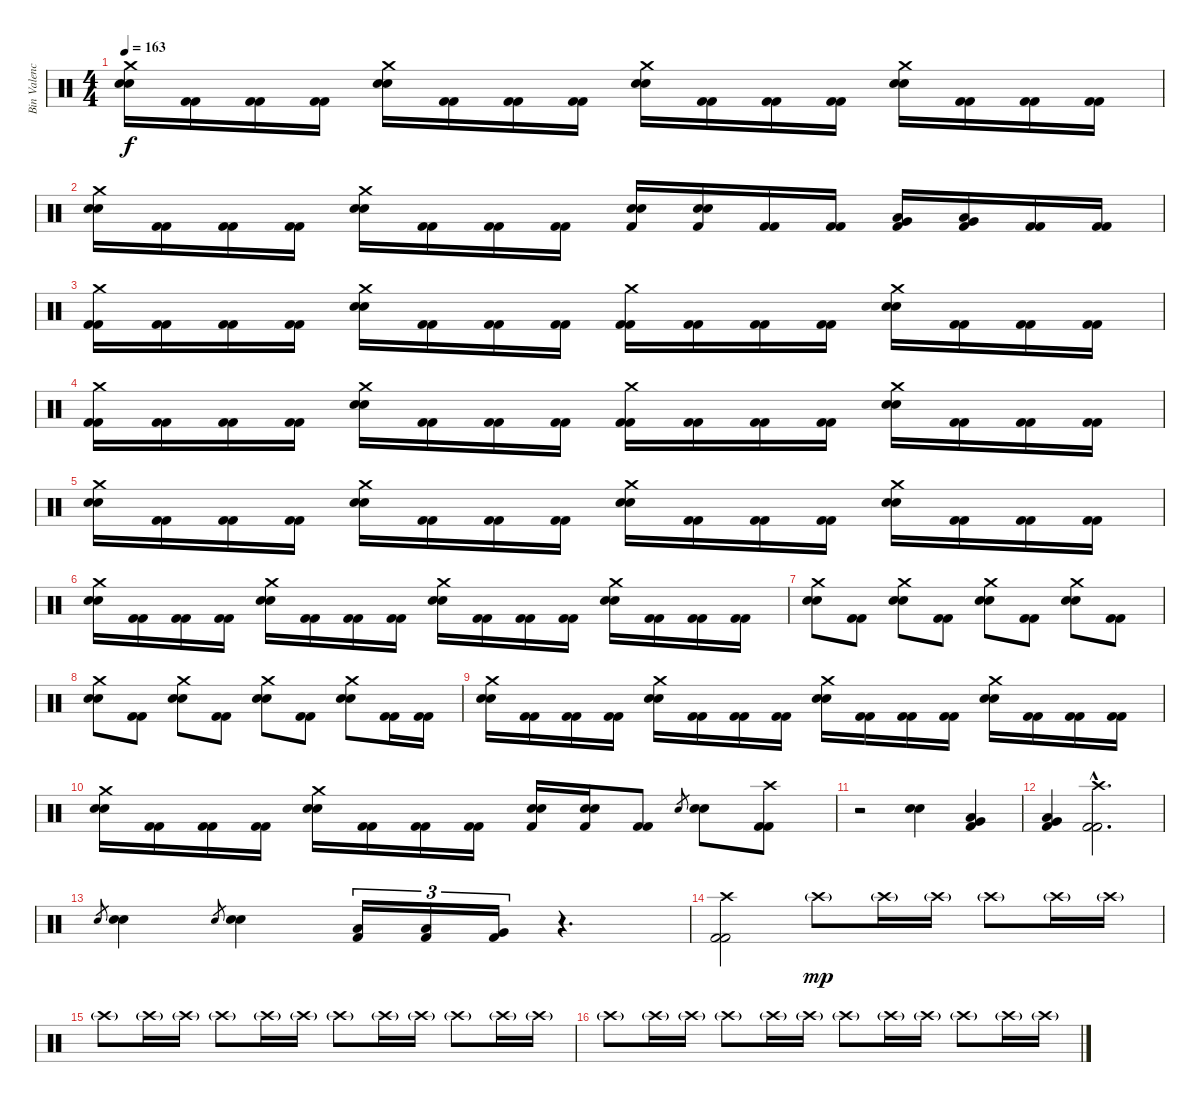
\track ("Bin Valencia" "Bin Valenc") {instrument percussion}
\staff {score}
\articulation defaults
\ts (4 4)
\tempo 163
\clef neutral
\ks c
("Crash medium (hit)" "Snare (hit) 2" "Snare (hit) 2").16{dy f} ("Kick (hit) 2" "Kick (hit) 2").16 ("Kick (hit) 2" "Kick (hit) 2").16 ("Kick (hit) 2" "Kick (hit) 2").16 ("Crash medium (hit)" "Snare (hit) 2" "Snare (hit) 2").16 ("Kick (hit) 2" "Kick (hit) 2").16 ("Kick (hit) 2" "Kick (hit) 2").16 ("Kick (hit) 2" "Kick (hit) 2").16 ("Crash medium (hit)" "Snare (hit) 2" "Snare (hit) 2").16 ("Kick (hit) 2" "Kick (hit) 2").16 ("Kick (hit) 2" "Kick (hit) 2").16 ("Kick (hit) 2" "Kick (hit) 2").16 ("Crash medium (hit)" "Snare (hit) 2" "Snare (hit) 2").16 ("Kick (hit) 2" "Kick (hit) 2").16 ("Kick (hit) 2" "Kick (hit) 2").16 ("Kick (hit) 2" "Kick (hit) 2").16 |
("Crash medium (hit)" "Snare (hit) 2" "Snare (hit) 2").16 ("Kick (hit) 2" "Kick (hit) 2").16 ("Kick (hit) 2" "Kick (hit) 2").16 ("Kick (hit) 2" "Kick (hit) 2").16 ("Crash medium (hit)" "Snare (hit) 2" "Snare (hit) 2").16 ("Kick (hit) 2" "Kick (hit) 2").16 ("Kick (hit) 2" "Kick (hit) 2").16 ("Kick (hit) 2" "Kick (hit) 2").16 ("Snare (hit) 2" "Snare (hit) 2" "Kick (hit) 2").16 ("Snare (hit) 2" "Snare (hit) 2" "Kick (hit) 2").16 ("Kick (hit) 2" "Kick (hit) 2").16 ("Kick (hit) 2" "Kick (hit) 2").16 ("Very Low Tom (hit)" "Low Tom (hit)" "Kick (hit) 2").16 ("Very Low Tom (hit)" "Low Tom (hit)" "Kick (hit) 2").16 ("Kick (hit) 2" "Kick (hit) 2").16 ("Kick (hit) 2" "Kick (hit) 2").16 |
("Crash medium (hit)" "Kick (hit) 2" "Kick (hit) 2").16 ("Kick (hit) 2" "Kick (hit) 2").16 ("Kick (hit) 2" "Kick (hit) 2").16 ("Kick (hit) 2" "Kick (hit) 2").16 ("Crash medium (hit)" "Snare (hit) 2" "Snare (hit) 2").16 ("Kick (hit) 2" "Kick (hit) 2").16 ("Kick (hit) 2" "Kick (hit) 2").16 ("Kick (hit) 2" "Kick (hit) 2").16 ("Crash medium (hit)" "Kick (hit) 2" "Kick (hit) 2").16 ("Kick (hit) 2" "Kick (hit) 2").16 ("Kick (hit) 2" "Kick (hit) 2").16 ("Kick (hit) 2" "Kick (hit) 2").16 ("Crash medium (hit)" "Snare (hit) 2" "Snare (hit) 2").16 ("Kick (hit) 2" "Kick (hit) 2").16 ("Kick (hit) 2" "Kick (hit) 2").16 ("Kick (hit) 2" "Kick (hit) 2").16 |
("Crash medium (hit)" "Kick (hit) 2" "Kick (hit) 2").16 ("Kick (hit) 2" "Kick (hit) 2").16 ("Kick (hit) 2" "Kick (hit) 2").16 ("Kick (hit) 2" "Kick (hit) 2").16 ("Crash medium (hit)" "Snare (hit) 2" "Snare (hit) 2").16 ("Kick (hit) 2" "Kick (hit) 2").16 ("Kick (hit) 2" "Kick (hit) 2").16 ("Kick (hit) 2" "Kick (hit) 2").16 ("Crash medium (hit)" "Kick (hit) 2" "Kick (hit) 2").16 ("Kick (hit) 2" "Kick (hit) 2").16 ("Kick (hit) 2" "Kick (hit) 2").16 ("Kick (hit) 2" "Kick (hit) 2").16 ("Crash medium (hit)" "Snare (hit) 2" "Snare (hit) 2").16 ("Kick (hit) 2" "Kick (hit) 2").16 ("Kick (hit) 2" "Kick (hit) 2").16 ("Kick (hit) 2" "Kick (hit) 2").16 |
("Crash medium (hit)" "Snare (hit) 2" "Snare (hit) 2").16 ("Kick (hit) 2" "Kick (hit) 2").16 ("Kick (hit) 2" "Kick (hit) 2").16 ("Kick (hit) 2" "Kick (hit) 2").16 ("Crash medium (hit)" "Snare (hit) 2" "Snare (hit) 2").16 ("Kick (hit) 2" "Kick (hit) 2").16 ("Kick (hit) 2" "Kick (hit) 2").16 ("Kick (hit) 2" "Kick (hit) 2").16 ("Crash medium (hit)" "Snare (hit) 2" "Snare (hit) 2").16 ("Kick (hit) 2" "Kick (hit) 2").16 ("Kick (hit) 2" "Kick (hit) 2").16 ("Kick (hit) 2" "Kick (hit) 2").16 ("Crash medium (hit)" "Snare (hit) 2" "Snare (hit) 2").16 ("Kick (hit) 2" "Kick (hit) 2").16 ("Kick (hit) 2" "Kick (hit) 2").16 ("Kick (hit) 2" "Kick (hit) 2").16 |
("Crash medium (hit)" "Snare (hit) 2" "Snare (hit) 2").16 ("Kick (hit) 2" "Kick (hit) 2").16 ("Kick (hit) 2" "Kick (hit) 2").16 ("Kick (hit) 2" "Kick (hit) 2").16 ("Crash medium (hit)" "Snare (hit) 2" "Snare (hit) 2").16 ("Kick (hit) 2" "Kick (hit) 2").16 ("Kick (hit) 2" "Kick (hit) 2").16 ("Kick (hit) 2" "Kick (hit) 2").16 ("Crash medium (hit)" "Snare (hit) 2" "Snare (hit) 2").16 ("Kick (hit) 2" "Kick (hit) 2").16 ("Kick (hit) 2" "Kick (hit) 2").16 ("Kick (hit) 2" "Kick (hit) 2").16 ("Crash medium (hit)" "Snare (hit) 2" "Snare (hit) 2").16 ("Kick (hit) 2" "Kick (hit) 2").16 ("Kick (hit) 2" "Kick (hit) 2").16 ("Kick (hit) 2" "Kick (hit) 2").16 |
("Crash medium (hit)" "Snare (hit) 2" "Snare (hit) 2").8 ("Kick (hit) 2" "Kick (hit) 2").8 ("Crash medium (hit)" "Snare (hit) 2" "Snare (hit) 2").8 ("Kick (hit) 2" "Kick (hit) 2").8 ("Crash medium (hit)" "Snare (hit) 2" "Snare (hit) 2").8 ("Kick (hit) 2" "Kick (hit) 2").8 ("Crash medium (hit)" "Snare (hit) 2" "Snare (hit) 2").8 ("Kick (hit) 2" "Kick (hit) 2").8 |
("Crash medium (hit)" "Snare (hit) 2" "Snare (hit) 2").8 ("Kick (hit) 2" "Kick (hit) 2").8 ("Crash medium (hit)" "Snare (hit) 2" "Snare (hit) 2").8 ("Kick (hit) 2" "Kick (hit) 2").8 ("Crash medium (hit)" "Snare (hit) 2" "Snare (hit) 2").8 ("Kick (hit) 2" "Kick (hit) 2").8 ("Crash medium (hit)" "Snare (hit) 2" "Snare (hit) 2").8 ("Kick (hit) 2" "Kick (hit) 2").16 ("Kick (hit) 2" "Kick (hit) 2").16 |
("Crash medium (hit)" "Snare (hit) 2" "Snare (hit) 2").16 ("Kick (hit) 2" "Kick (hit) 2").16 ("Kick (hit) 2" "Kick (hit) 2").16 ("Kick (hit) 2" "Kick (hit) 2").16 ("Crash medium (hit)" "Snare (hit) 2" "Snare (hit) 2").16 ("Kick (hit) 2" "Kick (hit) 2").16 ("Kick (hit) 2" "Kick (hit) 2").16 ("Kick (hit) 2" "Kick (hit) 2").16 ("Crash medium (hit)" "Snare (hit) 2" "Snare (hit) 2").16 ("Kick (hit) 2" "Kick (hit) 2").16 ("Kick (hit) 2" "Kick (hit) 2").16 ("Kick (hit) 2" "Kick (hit) 2").16 ("Crash medium (hit)" "Snare (hit) 2" "Snare (hit) 2").16 ("Kick (hit) 2" "Kick (hit) 2").16 ("Kick (hit) 2" "Kick (hit) 2").16 ("Kick (hit) 2" "Kick (hit) 2").16 |
("Crash medium (hit)" "Snare (hit) 2" "Snare (hit) 2").16 ("Kick (hit) 2" "Kick (hit) 2").16 ("Kick (hit) 2" "Kick (hit) 2").16 ("Kick (hit) 2" "Kick (hit) 2").16 ("Crash medium (hit)" "Snare (hit) 2" "Snare (hit) 2").16 ("Kick (hit) 2" "Kick (hit) 2").16 ("Kick (hit) 2" "Kick (hit) 2").16 ("Kick (hit) 2" "Kick (hit) 2").16 ("Snare (hit) 2" "Snare (hit) 2" "Kick (hit) 2").16 ("Snare (hit) 2" "Snare (hit) 2" "Kick (hit) 2").16 ("Kick (hit) 2" "Kick (hit) 2").8 "Electric Snare (hit)".8{gr} ("Electric Snare (hit)" "Electric Snare (hit)").8 ("Crash high (hit)" "Kick (hit) 2" "Kick (hit) 2").8 |
r.2 ("Electric Snare (hit)" "Electric Snare (hit)").4 ("Very Low Tom (hit)" "Low Tom (hit)" "Kick (hit) 2").4 |
("Low Tom (hit)" "Very Low Tom (hit)" "Kick (hit) 2").4 ("Crash high (hit)"{hac} "Kick (hit) 2"{hac} "Kick (hit) 2"{hac}).2{d} |
"Electric Snare (hit)".8{gr} ("Electric Snare (hit)" "Electric Snare (hit)").4 "Electric Snare (hit)".8{gr} ("Snare (hit) 2" "Snare (hit) 2").4 ("Low Tom (hit)" "Kick (hit) 2").16{tu (3 2)} ("Low Tom (hit)" "Kick (hit) 2").16{tu (3 2)} ("Very Low Tom (hit)" "Kick (hit) 2").16{tu (3 2)} r.4{d} |
("Crash high (hit)" "Kick (hit) 2" "Kick (hit) 2").2 "Crash high (hit)"{g}.8{dy mp} "Crash high (hit)"{g}.16 "Crash high (hit)"{g}.16 "Crash high (hit)"{g}.8 "Crash high (hit)"{g}.16 "Crash high (hit)"{g}.16 |
"Crash high (hit)"{g}.8 "Crash high (hit)"{g}.16 "Crash high (hit)"{g}.16 "Crash high (hit)"{g}.8 "Crash high (hit)"{g}.16 "Crash high (hit)"{g}.16{volume 7} "Crash high (hit)"{g}.8 "Crash high (hit)"{g}.16 "Crash high (hit)"{g}.16 "Crash high (hit)"{g}.8 "Crash high (hit)"{g}.16 "Crash high (hit)"{g}.16 |
"Crash high (hit)"{g}.8 "Crash high (hit)"{g}.16 "Crash high (hit)"{g}.16 "Crash high (hit)"{g}.8 "Crash high (hit)"{g}.16 "Crash high (hit)"{g}.16 "Crash high (hit)"{g}.8 "Crash high (hit)"{g}.16 "Crash high (hit)"{g}.16 "Crash high (hit)"{g}.8 "Crash high (hit)"{g}.16 "Crash high (hit)"{g}.16
